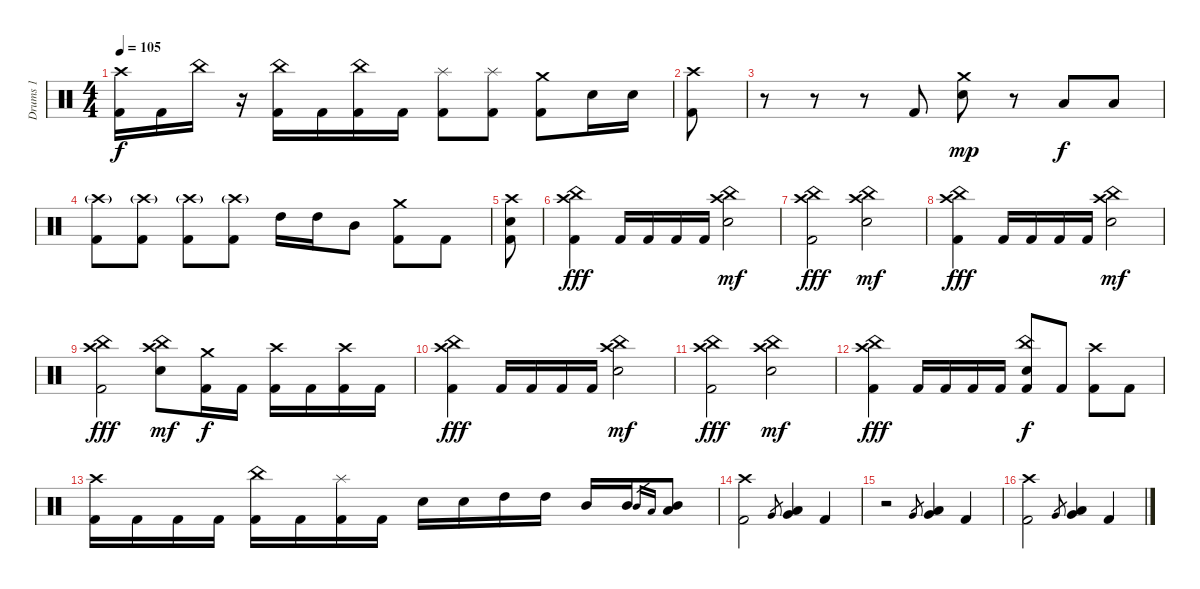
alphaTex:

\track ("Drums 1" "Drums 1") {instrument percussion}
\staff
\articulation defaults
\ts (4 4)
\tempo 105
\clef neutral
\ks c
("Crash high (hit)" "Kick (hit) 2").16{dy f} "Kick (hit) 2".16 "China (hit)".16 r.16 ("China (hit)" "Kick (hit) 2").16 "Kick (hit) 2".16 ("China (hit)" "Kick (hit) 2").16 "Kick (hit) 2".16 ("Splash (hit)" "Kick (hit) 2").8 ("Splash (hit)" "Kick (hit) 2").8 ("Crash medium (hit)" "Kick (hit) 2").8 "Electric Snare (hit)".16 "Electric Snare (hit)".16 |
("Crash high (hit)" "Kick (hit) 2").8 |
r.8 r.8 r.8 "Kick (hit) 2".8 ("Crash medium (hit)" "Electric Snare (hit)").8{dy mp} r.8 "Low Tom (hit)".8{dy f} "Low Tom (hit)".8 |
("Crash high (hit)"{g} "Kick (hit) 2").8 ("Crash high (hit)"{g} "Kick (hit) 2").8 ("Crash high (hit)"{g} "Kick (hit) 2").8 ("Crash high (hit)"{g} "Kick (hit) 2").8 "High Tom (hit)".16 "High Tom (hit)".16 "Mid Tom (hit)".8 ("Crash medium (hit)" "Kick (hit) 2").8 "Kick (hit) 2".8 |
("Electric Snare (hit)" "Crash high (hit)" "Kick (hit) 2").8 |
("Crash high (hit)" "China (hit)" "Kick (hit) 2").4{dy fff} "Kick (hit) 2".16 "Kick (hit) 2".16 "Kick (hit) 2".16 "Kick (hit) 2".16 ("Crash high (hit)" "China (hit)" "Electric Snare (hit)").2{dy mf} |
("Crash high (hit)" "China (hit)" "Kick (hit) 2").2{dy fff} ("Crash high (hit)" "China (hit)" "Electric Snare (hit)").2{dy mf} |
("Crash high (hit)" "China (hit)" "Kick (hit) 2").4{dy fff} "Kick (hit) 2".16 "Kick (hit) 2".16 "Kick (hit) 2".16 "Kick (hit) 2".16 ("Crash high (hit)" "China (hit)" "Electric Snare (hit)").2{dy mf} |
("Crash high (hit)" "China (hit)" "Kick (hit) 2").2{dy fff} ("Crash high (hit)" "China (hit)" "Electric Snare (hit)").8{dy mf} ("Crash medium (hit)" "Kick (hit) 2").16{dy f} "Kick (hit) 2".16 ("Crash high (hit)" "Kick (hit) 2").16 "Kick (hit) 2".16 ("Crash high (hit)" "Kick (hit) 2").16 "Kick (hit) 2".16 |
("Crash high (hit)" "China (hit)" "Kick (hit) 2").4{dy fff} "Kick (hit) 2".16 "Kick (hit) 2".16 "Kick (hit) 2".16 "Kick (hit) 2".16 ("Crash high (hit)" "China (hit)" "Electric Snare (hit)").2{dy mf} |
("Crash high (hit)" "China (hit)" "Kick (hit) 2").2{dy fff} ("Crash high (hit)" "China (hit)" "Electric Snare (hit)").2{dy mf} |
("Crash high (hit)" "China (hit)" "Kick (hit) 2").4{dy fff} "Kick (hit) 2".16 "Kick (hit) 2".16 "Kick (hit) 2".16 "Kick (hit) 2".16 ("China (hit)" "Electric Snare (hit)" "Kick (hit) 2").8{dy f} "Kick (hit) 2".8 ("Crash high (hit)" "Kick (hit) 2").8 "Kick (hit) 2".8 |
("Crash high (hit)" "Kick (hit) 2").16 "Kick (hit) 2".16 "Kick (hit) 2".16 "Kick (hit) 2".16 ("China (hit)" "Kick (hit) 2").16 "Kick (hit) 2".16 ("Splash (hit)" "Kick (hit) 2").16 "Kick (hit) 2".16 "Electric Snare (hit)".16 "Electric Snare (hit)".16 "High Tom (hit)".16 "High Tom (hit)".16 "Mid Tom (hit)".16 "Mid Tom (hit)".16 "Mid Tom (hit)".16{gr} "Low Tom (hit)".16{gr} ("Mid Tom (hit)" "Low Tom (hit)").8 |
("Crash high (hit)" "Kick (hit) 2").2 "Very Low Tom (hit)".8{gr} ("Low Tom (hit)" "Very Low Tom (hit)").4 "Kick (hit) 2".4 |
r.2 "Very Low Tom (hit)".8{gr} ("Low Tom (hit)" "Very Low Tom (hit)").4 "Kick (hit) 2".4 |
("Crash high (hit)" "Kick (hit) 2").2 "Very Low Tom (hit)".8{gr} ("Low Tom (hit)" "Very Low Tom (hit)").4 "Kick (hit) 2".4
